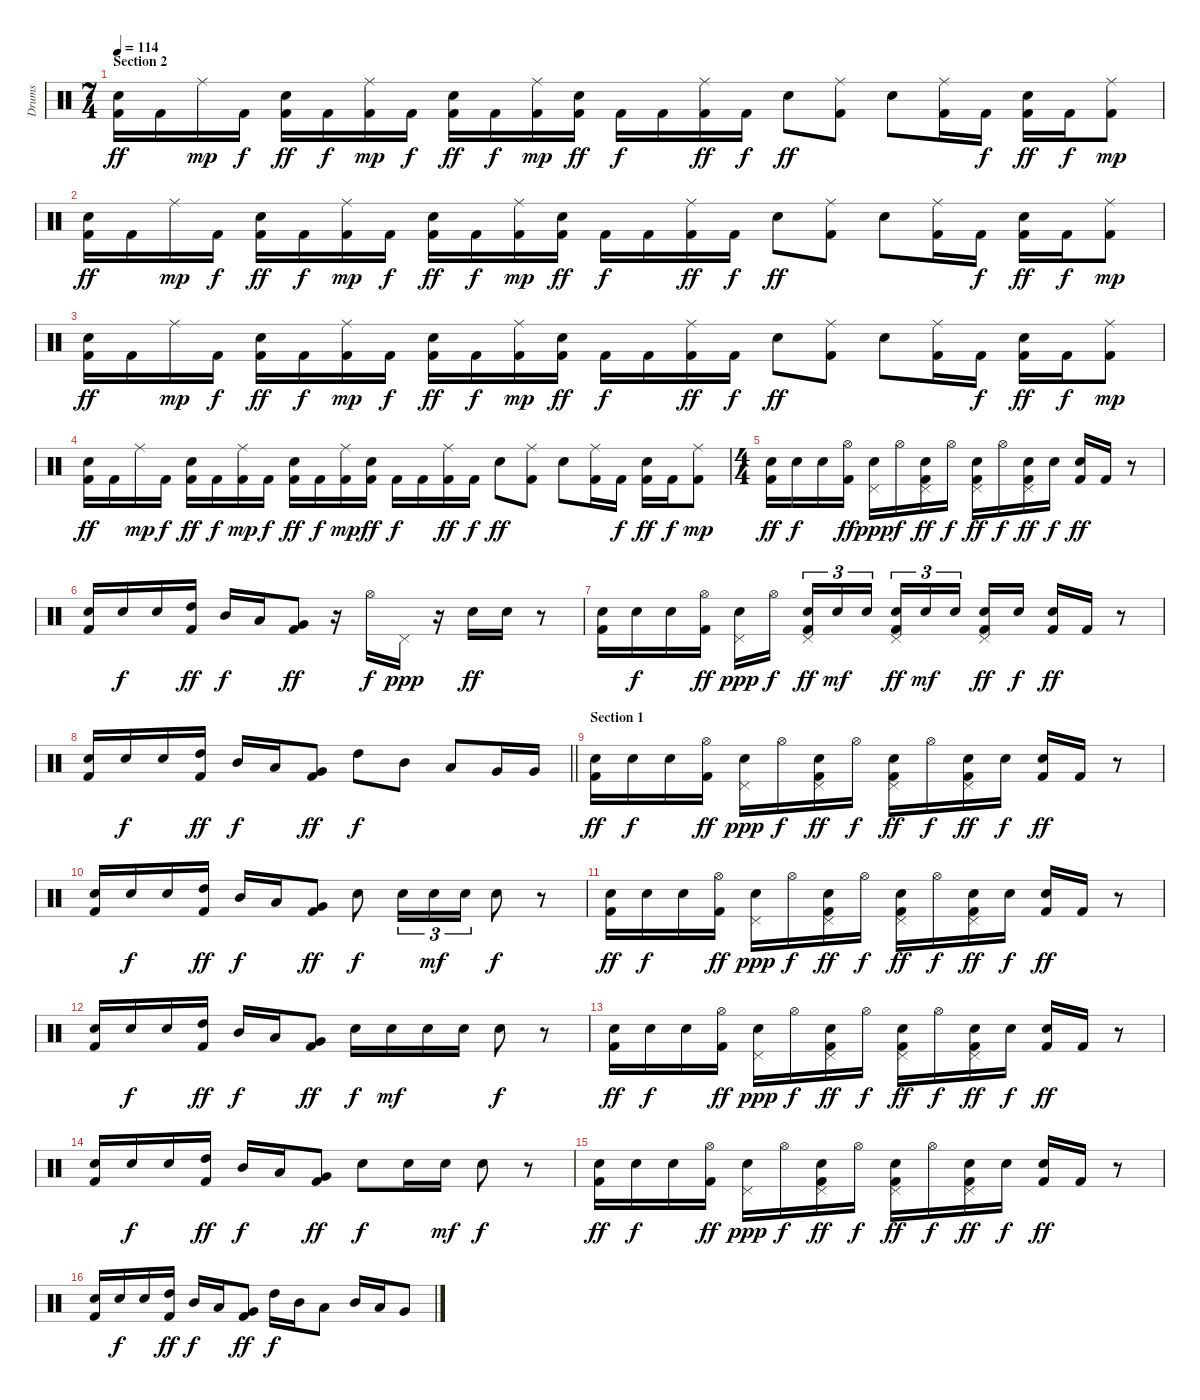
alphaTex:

\track ("Drums" "Drums") {instrument percussion}
\staff {score}
\articulation defaults
\ts (7 4)
\section ("" "Section 2")
\tempo 114
\clef neutral
\ks c
("Snare (hit) 2" "Kick (hit) 2").16{dy ff} "Kick (hit) 2".16 "Ride (middle)".16{dy mp} "Kick (hit) 2".16{dy f} ("Snare (hit) 2" "Kick (hit) 2").16{dy ff} "Kick (hit) 2".16{dy f} ("Ride (middle)" "Kick (hit) 2").16{dy mp} "Kick (hit) 2".16{dy f} ("Snare (hit) 2" "Kick (hit) 2").16{dy ff} "Kick (hit) 2".16{dy f} ("Ride (middle)" "Kick (hit) 2").16{dy mp} ("Snare (hit) 2" "Kick (hit) 2").16{dy ff} "Kick (hit) 2".16{dy f} "Kick (hit) 2".16 ("Ride (middle)" "Kick (hit) 2").16{dy ff} "Kick (hit) 2".16{dy f} "Snare (hit) 2".8{dy ff} ("Ride (middle)" "Kick (hit) 2").8 "Snare (hit) 2".8 ("Ride (middle)" "Kick (hit) 2").16 "Kick (hit) 2".16{dy f} ("Snare (hit) 2" "Kick (hit) 2").16{dy ff} "Kick (hit) 2".16{dy f} ("Ride (middle)" "Kick (hit) 2").8{dy mp} |
("Snare (hit) 2" "Kick (hit) 2").16{dy ff} "Kick (hit) 2".16 "Ride (middle)".16{dy mp} "Kick (hit) 2".16{dy f} ("Snare (hit) 2" "Kick (hit) 2").16{dy ff} "Kick (hit) 2".16{dy f} ("Ride (middle)" "Kick (hit) 2").16{dy mp} "Kick (hit) 2".16{dy f} ("Snare (hit) 2" "Kick (hit) 2").16{dy ff} "Kick (hit) 2".16{dy f} ("Ride (middle)" "Kick (hit) 2").16{dy mp} ("Snare (hit) 2" "Kick (hit) 2").16{dy ff} "Kick (hit) 2".16{dy f} "Kick (hit) 2".16 ("Ride (middle)" "Kick (hit) 2").16{dy ff} "Kick (hit) 2".16{dy f} "Snare (hit) 2".8{dy ff} ("Ride (middle)" "Kick (hit) 2").8 "Snare (hit) 2".8 ("Ride (middle)" "Kick (hit) 2").16 "Kick (hit) 2".16{dy f} ("Snare (hit) 2" "Kick (hit) 2").16{dy ff} "Kick (hit) 2".16{dy f} ("Ride (middle)" "Kick (hit) 2").8{dy mp} |
("Snare (hit) 2" "Kick (hit) 2").16{dy ff} "Kick (hit) 2".16 "Ride (middle)".16{dy mp} "Kick (hit) 2".16{dy f} ("Snare (hit) 2" "Kick (hit) 2").16{dy ff} "Kick (hit) 2".16{dy f} ("Ride (middle)" "Kick (hit) 2").16{dy mp} "Kick (hit) 2".16{dy f} ("Snare (hit) 2" "Kick (hit) 2").16{dy ff} "Kick (hit) 2".16{dy f} ("Ride (middle)" "Kick (hit) 2").16{dy mp} ("Snare (hit) 2" "Kick (hit) 2").16{dy ff} "Kick (hit) 2".16{dy f} "Kick (hit) 2".16 ("Ride (middle)" "Kick (hit) 2").16{dy ff} "Kick (hit) 2".16{dy f} "Snare (hit) 2".8{dy ff} ("Ride (middle)" "Kick (hit) 2").8 "Snare (hit) 2".8 ("Ride (middle)" "Kick (hit) 2").16 "Kick (hit) 2".16{dy f} ("Snare (hit) 2" "Kick (hit) 2").16{dy ff} "Kick (hit) 2".16{dy f} ("Ride (middle)" "Kick (hit) 2").8{dy mp} |
("Snare (hit) 2" "Kick (hit) 2").16{dy ff} "Kick (hit) 2".16 "Ride (middle)".16{dy mp} "Kick (hit) 2".16{dy f} ("Snare (hit) 2" "Kick (hit) 2").16{dy ff} "Kick (hit) 2".16{dy f} ("Ride (middle)" "Kick (hit) 2").16{dy mp} "Kick (hit) 2".16{dy f} ("Snare (hit) 2" "Kick (hit) 2").16{dy ff} "Kick (hit) 2".16{dy f} ("Ride (middle)" "Kick (hit) 2").16{dy mp} ("Snare (hit) 2" "Kick (hit) 2").16{dy ff} "Kick (hit) 2".16{dy f} "Kick (hit) 2".16 ("Ride (middle)" "Kick (hit) 2").16{dy ff} "Kick (hit) 2".16{dy f} "Snare (hit) 2".8{dy ff} ("Ride (middle)" "Kick (hit) 2").8 "Snare (hit) 2".8 ("Ride (middle)" "Kick (hit) 2").16 "Kick (hit) 2".16{dy f} ("Snare (hit) 2" "Kick (hit) 2").16{dy ff} "Kick (hit) 2".16{dy f} ("Ride (middle)" "Kick (hit) 2").8{dy mp} |
\ts (4 4)
("Snare (hit) 2" "Kick (hit) 2").16{dy ff} "Electric Snare (hit)".16{dy f} "Electric Snare (hit)".16 ("Hi-Hat (open)" "Kick (hit) 2").16{dy ff} ("Pedal Hi-Hat (hit)" "Electric Snare (hit)").16{dy ppp} "Hi-Hat (open)".16{dy f} ("Pedal Hi-Hat (hit)" "Electric Snare (hit)" "Kick (hit) 2").16{dy ff} "Hi-Hat (open)".16{dy f} ("Pedal Hi-Hat (hit)" "Electric Snare (hit)" "Kick (hit) 2").16{dy ff} "Hi-Hat (open)".16{dy f} ("Pedal Hi-Hat (hit)" "Electric Snare (hit)" "Kick (hit) 2").16{dy ff} "Snare (hit) 2".16{dy f} ("Electric Snare (hit)" "Kick (hit) 2").16{dy ff} "Kick (hit) 2".16 r.8 |
("Snare (hit) 2" "Kick (hit) 2").16 "Electric Snare (hit)".16{dy f} "Electric Snare (hit)".16 ("High Tom (hit)" "Kick (hit) 2").16{dy ff} "Mid Tom (hit)".16{dy f} "Low Tom (hit)".16 ("Very Low Tom (hit)" "Kick (hit) 2").8{dy ff} r.16 "Hi-Hat (open)".16{dy f} "Pedal Hi-Hat (hit)".16{dy ppp} r.16 "Snare (hit) 2".16{dy ff} "Electric Snare (hit)".16 r.8 |
("Snare (hit) 2" "Kick (hit) 2").16 "Electric Snare (hit)".16{dy f} "Electric Snare (hit)".16 ("Hi-Hat (open)" "Kick (hit) 2").16{dy ff} ("Pedal Hi-Hat (hit)" "Electric Snare (hit)").16{dy ppp} "Hi-Hat (open)".16{dy f beam splitsecondary} ("Pedal Hi-Hat (hit)" "Electric Snare (hit)" "Kick (hit) 2").16{tu (3 2) dy ff} "Electric Snare (hit)".16{tu (3 2) dy mf} "Electric Snare (hit)".16{tu (3 2)} ("Pedal Hi-Hat (hit)" "Electric Snare (hit)" "Kick (hit) 2").16{tu (3 2) dy ff} "Electric Snare (hit)".16{tu (3 2) dy mf} "Electric Snare (hit)".16{tu (3 2) beam splitsecondary} ("Pedal Hi-Hat (hit)" "Electric Snare (hit)" "Kick (hit) 2").16{dy ff} "Snare (hit) 2".16{dy f} ("Electric Snare (hit)" "Kick (hit) 2").16{dy ff} "Kick (hit) 2".16 r.8 |
\barLineRight lightlight
("Snare (hit) 2" "Kick (hit) 2").16 "Electric Snare (hit)".16{dy f} "Electric Snare (hit)".16 ("High Tom (hit)" "Kick (hit) 2").16{dy ff} "Mid Tom (hit)".16{dy f} "Low Tom (hit)".16 ("Very Low Tom (hit)" "Kick (hit) 2").8{dy ff} "High Tom (hit)".8{dy f} "Mid Tom (hit)".8 "Low Tom (hit)".8 "Very Low Tom (hit)".16 "Very Low Tom (hit)".16 |
\section ("" "Section 1")
("Snare (hit) 2" "Kick (hit) 2").16{dy ff} "Electric Snare (hit)".16{dy f} "Electric Snare (hit)".16 ("Hi-Hat (open)" "Kick (hit) 2").16{dy ff} ("Pedal Hi-Hat (hit)" "Electric Snare (hit)").16{dy ppp} "Hi-Hat (open)".16{dy f} ("Pedal Hi-Hat (hit)" "Electric Snare (hit)" "Kick (hit) 2").16{dy ff} "Hi-Hat (open)".16{dy f} ("Pedal Hi-Hat (hit)" "Electric Snare (hit)" "Kick (hit) 2").16{dy ff} "Hi-Hat (open)".16{dy f} ("Pedal Hi-Hat (hit)" "Electric Snare (hit)" "Kick (hit) 2").16{dy ff} "Snare (hit) 2".16{dy f} ("Electric Snare (hit)" "Kick (hit) 2").16{dy ff} "Kick (hit) 2".16 r.8 |
("Snare (hit) 2" "Kick (hit) 2").16 "Electric Snare (hit)".16{dy f} "Electric Snare (hit)".16 ("High Tom (hit)" "Kick (hit) 2").16{dy ff} "Mid Tom (hit)".16{dy f} "Low Tom (hit)".16 ("Very Low Tom (hit)" "Kick (hit) 2").8{dy ff} "Electric Snare (hit)".8{dy f} "Snare (hit) 2".16{tu (3 2)} "Snare (hit) 2".16{tu (3 2) dy mf} "Snare (hit) 2".16{tu (3 2)} "Electric Snare (hit)".8{dy f} r.8 |
("Snare (hit) 2" "Kick (hit) 2").16{dy ff} "Electric Snare (hit)".16{dy f} "Electric Snare (hit)".16 ("Hi-Hat (open)" "Kick (hit) 2").16{dy ff} ("Pedal Hi-Hat (hit)" "Electric Snare (hit)").16{dy ppp} "Hi-Hat (open)".16{dy f} ("Pedal Hi-Hat (hit)" "Electric Snare (hit)" "Kick (hit) 2").16{dy ff} "Hi-Hat (open)".16{dy f} ("Pedal Hi-Hat (hit)" "Electric Snare (hit)" "Kick (hit) 2").16{dy ff} "Hi-Hat (open)".16{dy f} ("Pedal Hi-Hat (hit)" "Electric Snare (hit)" "Kick (hit) 2").16{dy ff} "Snare (hit) 2".16{dy f} ("Electric Snare (hit)" "Kick (hit) 2").16{dy ff} "Kick (hit) 2".16 r.8 |
("Snare (hit) 2" "Kick (hit) 2").16 "Electric Snare (hit)".16{dy f} "Electric Snare (hit)".16 ("High Tom (hit)" "Kick (hit) 2").16{dy ff} "Mid Tom (hit)".16{dy f} "Low Tom (hit)".16 ("Very Low Tom (hit)" "Kick (hit) 2").8{dy ff} "Electric Snare (hit)".16{dy f} "Electric Snare (hit)".16{dy mf} "Electric Snare (hit)".16 "Electric Snare (hit)".16 "Electric Snare (hit)".8{dy f} r.8 |
("Snare (hit) 2" "Kick (hit) 2").16{dy ff} "Electric Snare (hit)".16{dy f} "Electric Snare (hit)".16 ("Hi-Hat (open)" "Kick (hit) 2").16{dy ff} ("Pedal Hi-Hat (hit)" "Electric Snare (hit)").16{dy ppp} "Hi-Hat (open)".16{dy f} ("Pedal Hi-Hat (hit)" "Electric Snare (hit)" "Kick (hit) 2").16{dy ff} "Hi-Hat (open)".16{dy f} ("Pedal Hi-Hat (hit)" "Electric Snare (hit)" "Kick (hit) 2").16{dy ff} "Hi-Hat (open)".16{dy f} ("Pedal Hi-Hat (hit)" "Electric Snare (hit)" "Kick (hit) 2").16{dy ff} "Snare (hit) 2".16{dy f} ("Electric Snare (hit)" "Kick (hit) 2").16{dy ff} "Kick (hit) 2".16 r.8 |
("Snare (hit) 2" "Kick (hit) 2").16 "Electric Snare (hit)".16{dy f} "Electric Snare (hit)".16 ("High Tom (hit)" "Kick (hit) 2").16{dy ff} "Mid Tom (hit)".16{dy f} "Low Tom (hit)".16 ("Very Low Tom (hit)" "Kick (hit) 2").8{dy ff} "Electric Snare (hit)".8{dy f} "Snare (hit) 2".16 "Snare (hit) 2".16{dy mf} "Electric Snare (hit)".8{dy f} r.8 |
("Snare (hit) 2" "Kick (hit) 2").16{dy ff} "Electric Snare (hit)".16{dy f} "Electric Snare (hit)".16 ("Hi-Hat (open)" "Kick (hit) 2").16{dy ff} ("Pedal Hi-Hat (hit)" "Electric Snare (hit)").16{dy ppp} "Hi-Hat (open)".16{dy f} ("Pedal Hi-Hat (hit)" "Electric Snare (hit)" "Kick (hit) 2").16{dy ff} "Hi-Hat (open)".16{dy f} ("Pedal Hi-Hat (hit)" "Electric Snare (hit)" "Kick (hit) 2").16{dy ff} "Hi-Hat (open)".16{dy f} ("Pedal Hi-Hat (hit)" "Electric Snare (hit)" "Kick (hit) 2").16{dy ff} "Snare (hit) 2".16{dy f} ("Electric Snare (hit)" "Kick (hit) 2").16{dy ff} "Kick (hit) 2".16 r.8 |
("Snare (hit) 2" "Kick (hit) 2").16 "Electric Snare (hit)".16{dy f} "Electric Snare (hit)".16 ("High Tom (hit)" "Kick (hit) 2").16{dy ff} "Mid Tom (hit)".16{dy f} "Low Tom (hit)".16 ("Very Low Tom (hit)" "Kick (hit) 2").8{dy ff} "High Tom (hit)".16{dy f} "Mid Tom (hit)".16 "Low Tom (hit)".8 "Mid Tom (hit)".16 "Low Tom (hit)".16 "Very Low Tom (hit)".8
